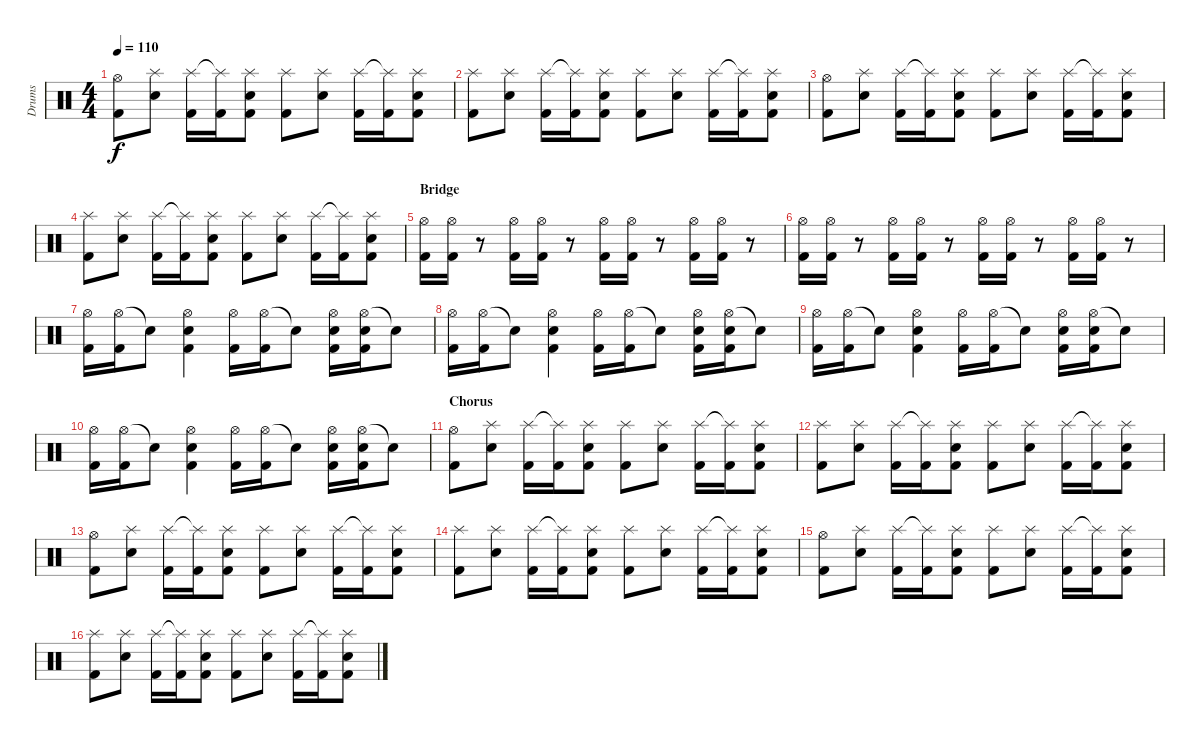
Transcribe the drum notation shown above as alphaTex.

\track ("Drums" "Drums") {instrument percussion}
\staff {score}
\articulation defaults
\ts (4 4)
\tempo 110
\clef neutral
\ks c
("Hi-Hat (open)" "Kick (hit) 2").8{dy f} ("Splash (hit)" "Electric Snare (hit)").8 ("Splash (hit)" "Kick (hit) 2").16 ("Splash (hit)"{t} "Kick (hit) 2").16 ("Splash (hit)" "Electric Snare (hit)" "Kick (hit) 2").8 ("Splash (hit)" "Kick (hit) 2").8 ("Splash (hit)" "Electric Snare (hit)").8 ("Splash (hit)" "Kick (hit) 2").16 ("Splash (hit)"{t} "Kick (hit) 2").16 ("Splash (hit)" "Electric Snare (hit)" "Kick (hit) 2").8 |
("Splash (hit)" "Kick (hit) 2").8 ("Splash (hit)" "Electric Snare (hit)").8 ("Splash (hit)" "Kick (hit) 2").16 ("Splash (hit)"{t} "Kick (hit) 2").16 ("Splash (hit)" "Electric Snare (hit)" "Kick (hit) 2").8 ("Splash (hit)" "Kick (hit) 2").8 ("Splash (hit)" "Electric Snare (hit)").8 ("Splash (hit)" "Kick (hit) 2").16 ("Splash (hit)"{t} "Kick (hit) 2").16 ("Splash (hit)" "Electric Snare (hit)" "Kick (hit) 2").8 |
("Hi-Hat (open)" "Kick (hit) 2").8 ("Splash (hit)" "Electric Snare (hit)").8 ("Splash (hit)" "Kick (hit) 2").16 ("Splash (hit)"{t} "Kick (hit) 2").16 ("Splash (hit)" "Electric Snare (hit)" "Kick (hit) 2").8 ("Splash (hit)" "Kick (hit) 2").8 ("Splash (hit)" "Electric Snare (hit)").8 ("Splash (hit)" "Kick (hit) 2").16 ("Splash (hit)"{t} "Kick (hit) 2").16 ("Splash (hit)" "Electric Snare (hit)" "Kick (hit) 2").8 |
("Splash (hit)" "Kick (hit) 2").8 ("Splash (hit)" "Electric Snare (hit)").8 ("Splash (hit)" "Kick (hit) 2").16 ("Splash (hit)"{t} "Kick (hit) 2").16 ("Splash (hit)" "Electric Snare (hit)" "Kick (hit) 2").8 ("Splash (hit)" "Kick (hit) 2").8 ("Splash (hit)" "Electric Snare (hit)").8 ("Splash (hit)" "Kick (hit) 2").16 ("Splash (hit)"{t} "Kick (hit) 2").16 ("Splash (hit)" "Electric Snare (hit)" "Kick (hit) 2").8 |
\section ("" "Bridge")
("Hi-Hat (open)" "Kick (hit) 2").16 ("Hi-Hat (open)" "Kick (hit) 2").16 r.8 ("Hi-Hat (open)" "Kick (hit) 2").16 ("Hi-Hat (open)" "Kick (hit) 2").16 r.8 ("Hi-Hat (open)" "Kick (hit) 2").16 ("Hi-Hat (open)" "Kick (hit) 2").16 r.8 ("Hi-Hat (open)" "Kick (hit) 2").16 ("Hi-Hat (open)" "Kick (hit) 2").16 r.8 |
("Hi-Hat (open)" "Kick (hit) 2").16 ("Hi-Hat (open)" "Kick (hit) 2").16 r.8 ("Hi-Hat (open)" "Kick (hit) 2").16 ("Hi-Hat (open)" "Kick (hit) 2").16 r.8 ("Hi-Hat (open)" "Kick (hit) 2").16 ("Hi-Hat (open)" "Kick (hit) 2").16 r.8 ("Hi-Hat (open)" "Kick (hit) 2").16 ("Hi-Hat (open)" "Kick (hit) 2").16 r.8 |
("Hi-Hat (open)" "Kick (hit) 2").16 ("Hi-Hat (open)" "Kick (hit) 2").16 "Snare (hit)"{t}.8 ("Hi-Hat (open)" "Electric Snare (hit)" "Kick (hit) 2").4 ("Hi-Hat (open)" "Kick (hit) 2").16 ("Hi-Hat (open)" "Kick (hit) 2").16 "Snare (hit)"{t}.8 ("Hi-Hat (open)" "Electric Snare (hit)" "Kick (hit) 2").16 ("Hi-Hat (open)" "Electric Snare (hit)" "Kick (hit) 2").16 "Snare (hit)"{t}.8 |
("Hi-Hat (open)" "Kick (hit) 2").16 ("Hi-Hat (open)" "Kick (hit) 2").16 "Snare (hit)"{t}.8 ("Hi-Hat (open)" "Electric Snare (hit)" "Kick (hit) 2").4 ("Hi-Hat (open)" "Kick (hit) 2").16 ("Hi-Hat (open)" "Kick (hit) 2").16 "Snare (hit)"{t}.8 ("Hi-Hat (open)" "Electric Snare (hit)" "Kick (hit) 2").16 ("Hi-Hat (open)" "Electric Snare (hit)" "Kick (hit) 2").16 "Snare (hit)"{t}.8 |
("Hi-Hat (open)" "Kick (hit) 2").16 ("Hi-Hat (open)" "Kick (hit) 2").16 "Snare (hit)"{t}.8 ("Hi-Hat (open)" "Electric Snare (hit)" "Kick (hit) 2").4 ("Hi-Hat (open)" "Kick (hit) 2").16 ("Hi-Hat (open)" "Kick (hit) 2").16 "Snare (hit)"{t}.8 ("Hi-Hat (open)" "Electric Snare (hit)" "Kick (hit) 2").16 ("Hi-Hat (open)" "Electric Snare (hit)" "Kick (hit) 2").16 "Snare (hit)"{t}.8 |
("Hi-Hat (open)" "Kick (hit) 2").16 ("Hi-Hat (open)" "Kick (hit) 2").16 "Snare (hit)"{t}.8 ("Hi-Hat (open)" "Electric Snare (hit)" "Kick (hit) 2").4 ("Hi-Hat (open)" "Kick (hit) 2").16 ("Hi-Hat (open)" "Kick (hit) 2").16 "Snare (hit)"{t}.8 ("Hi-Hat (open)" "Electric Snare (hit)" "Kick (hit) 2").16 ("Hi-Hat (open)" "Electric Snare (hit)" "Kick (hit) 2").16 "Snare (hit)"{t}.8 |
\section ("" "Chorus")
("Hi-Hat (open)" "Kick (hit) 2").8 ("Splash (hit)" "Electric Snare (hit)").8 ("Splash (hit)" "Kick (hit) 2").16 ("Splash (hit)"{t} "Kick (hit) 2").16 ("Splash (hit)" "Electric Snare (hit)" "Kick (hit) 2").8 ("Splash (hit)" "Kick (hit) 2").8 ("Splash (hit)" "Electric Snare (hit)").8 ("Splash (hit)" "Kick (hit) 2").16 ("Splash (hit)"{t} "Kick (hit) 2").16 ("Splash (hit)" "Electric Snare (hit)" "Kick (hit) 2").8 |
("Splash (hit)" "Kick (hit) 2").8 ("Splash (hit)" "Electric Snare (hit)").8 ("Splash (hit)" "Kick (hit) 2").16 ("Splash (hit)"{t} "Kick (hit) 2").16 ("Splash (hit)" "Electric Snare (hit)" "Kick (hit) 2").8 ("Splash (hit)" "Kick (hit) 2").8 ("Splash (hit)" "Electric Snare (hit)").8 ("Splash (hit)" "Kick (hit) 2").16 ("Splash (hit)"{t} "Kick (hit) 2").16 ("Splash (hit)" "Electric Snare (hit)" "Kick (hit) 2").8 |
("Hi-Hat (open)" "Kick (hit) 2").8 ("Splash (hit)" "Electric Snare (hit)").8 ("Splash (hit)" "Kick (hit) 2").16 ("Splash (hit)"{t} "Kick (hit) 2").16 ("Splash (hit)" "Electric Snare (hit)" "Kick (hit) 2").8 ("Splash (hit)" "Kick (hit) 2").8 ("Splash (hit)" "Electric Snare (hit)").8 ("Splash (hit)" "Kick (hit) 2").16 ("Splash (hit)"{t} "Kick (hit) 2").16 ("Splash (hit)" "Electric Snare (hit)" "Kick (hit) 2").8 |
("Splash (hit)" "Kick (hit) 2").8 ("Splash (hit)" "Electric Snare (hit)").8 ("Splash (hit)" "Kick (hit) 2").16 ("Splash (hit)"{t} "Kick (hit) 2").16 ("Splash (hit)" "Electric Snare (hit)" "Kick (hit) 2").8 ("Splash (hit)" "Kick (hit) 2").8 ("Splash (hit)" "Electric Snare (hit)").8 ("Splash (hit)" "Kick (hit) 2").16 ("Splash (hit)"{t} "Kick (hit) 2").16 ("Splash (hit)" "Electric Snare (hit)" "Kick (hit) 2").8 |
("Hi-Hat (open)" "Kick (hit) 2").8 ("Splash (hit)" "Electric Snare (hit)").8 ("Splash (hit)" "Kick (hit) 2").16 ("Splash (hit)"{t} "Kick (hit) 2").16 ("Splash (hit)" "Electric Snare (hit)" "Kick (hit) 2").8 ("Splash (hit)" "Kick (hit) 2").8 ("Splash (hit)" "Electric Snare (hit)").8 ("Splash (hit)" "Kick (hit) 2").16 ("Splash (hit)"{t} "Kick (hit) 2").16 ("Splash (hit)" "Electric Snare (hit)" "Kick (hit) 2").8 |
("Splash (hit)" "Kick (hit) 2").8 ("Splash (hit)" "Electric Snare (hit)").8 ("Splash (hit)" "Kick (hit) 2").16 ("Splash (hit)"{t} "Kick (hit) 2").16 ("Splash (hit)" "Electric Snare (hit)" "Kick (hit) 2").8 ("Splash (hit)" "Kick (hit) 2").8 ("Splash (hit)" "Electric Snare (hit)").8 ("Splash (hit)" "Kick (hit) 2").16 ("Splash (hit)"{t} "Kick (hit) 2").16 ("Splash (hit)" "Electric Snare (hit)" "Kick (hit) 2").8
